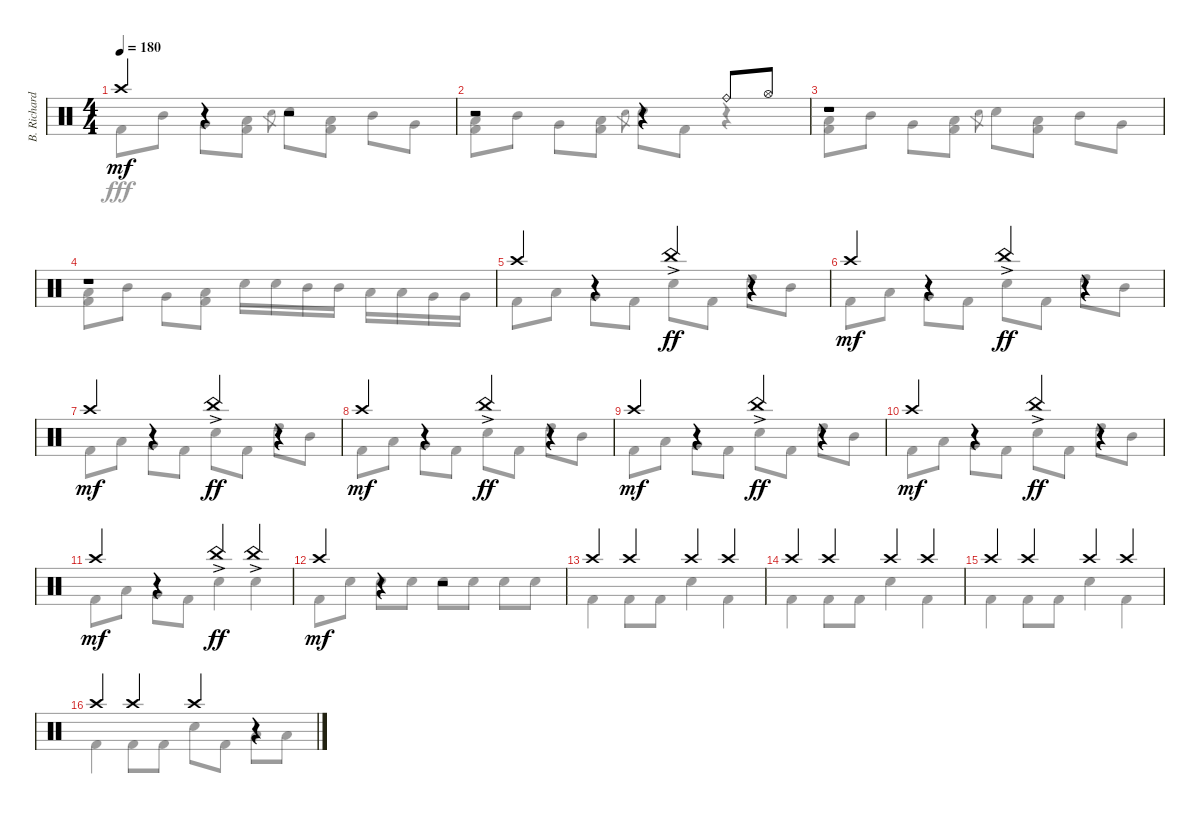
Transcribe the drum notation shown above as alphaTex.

\track ("B. Richardson Drums" "B. Richard") {instrument percussion}
\staff {score}
\articulation defaults
\voice
\ts (4 4)
\tempo 180
\clef neutral
\ks c "Crash high (hit)".4{dy mf}
r.4 r.2 |
r.2 r.4 "Ride (bell)".8 "Hi-Hat (open)".8 |
r.1 |
r.1 |
"Crash high (hit)".4 r.4 "China (hit)"{ac}.4{dy ff} r.4 |
"Crash high (hit)".4{dy mf} r.4 "China (hit)"{ac}.4{dy ff} r.4 |
"Crash high (hit)".4{dy mf} r.4 "China (hit)"{ac}.4{dy ff} r.4 |
"Crash high (hit)".4{dy mf} r.4 "China (hit)"{ac}.4{dy ff} r.4 |
"Crash high (hit)".4{dy mf} r.4 "China (hit)"{ac}.4{dy ff} r.4 |
"Crash high (hit)".4{dy mf} r.4 "China (hit)"{ac}.4{dy ff} r.4 |
"Crash high (hit)".4{dy mf} r.4 "China (hit)"{ac}.4{dy ff} "China (hit)"{ac}.4 |
"Crash high (hit)".4{dy mf} r.4 r.2 |
"Crash high (hit)".4 "Crash high (hit)".4 "Crash high (hit)".4 "Crash high (hit)".4 |
"Crash high (hit)".4 "Crash high (hit)".4 "Crash high (hit)".4 "Crash high (hit)".4 |
"Crash high (hit)".4 "Crash high (hit)".4 "Crash high (hit)".4 "Crash high (hit)".4 |
"Crash high (hit)".4 "Crash high (hit)".4 "Crash high (hit)".4 r.4
\voice
\clef neutral
\ottava regular
\simile none
\ks c "Kick (hit) 2".8{dy fff} "Mid Tom (hit)".8 "Very Low Tom (hit)".8
("Low Tom (hit)" "Kick (hit) 2").8 "Electric Snare (hit)".8{gr} "Electric Snare (hit)".8 ("Low Tom (hit)" "Kick (hit) 2").8 "Mid Tom (hit)".8 "Very Low Tom (hit)".8 |
("Low Tom (hit)" "Kick (hit) 2").8 "Mid Tom (hit)".8 "Very Low Tom (hit)".8 ("Low Tom (hit)" "Kick (hit) 2").8 "Electric Snare (hit)".8{gr} "Electric Snare (hit)".8 "Kick (hit) 2".8 r.4 |
("Low Tom (hit)" "Kick (hit) 2").8 "Mid Tom (hit)".8 "Very Low Tom (hit)".8 ("Low Tom (hit)" "Kick (hit) 2").8 "Electric Snare (hit)".8{gr} "Electric Snare (hit)".8 ("Low Tom (hit)" "Kick (hit) 2").8 "Mid Tom (hit)".8 "Very Low Tom (hit)".8 |
("Low Tom (hit)" "Kick (hit) 2").8 "Mid Tom (hit)".8 "Very Low Tom (hit)".8 ("Low Tom (hit)" "Kick (hit) 2").8 "Electric Snare (hit)".16 "Electric Snare (hit)".16 "Mid Tom (hit)".16 "Mid Tom (hit)".16 "Low Tom (hit)".16 "Low Tom (hit)".16 "Very Low Tom (hit)".16 "Very Low Tom (hit)".16 |
"Kick (hit) 2".8 "Low Tom (hit)".8 "Very Low Tom (hit)".8 "Kick (hit) 2".8 "Electric Snare (hit)".8 "Kick (hit) 2".8 "High Tom (hit)".8 "Mid Tom (hit)".8 |
"Kick (hit) 2".8 "Low Tom (hit)".8 "Very Low Tom (hit)".8 "Kick (hit) 2".8 "Electric Snare (hit)".8 "Kick (hit) 2".8 "High Tom (hit)".8 "Mid Tom (hit)".8 |
"Kick (hit) 2".8 "Low Tom (hit)".8 "Very Low Tom (hit)".8 "Kick (hit) 2".8 "Electric Snare (hit)".8 "Kick (hit) 2".8 "High Tom (hit)".8 "Mid Tom (hit)".8 |
"Kick (hit) 2".8 "Low Tom (hit)".8 "Very Low Tom (hit)".8 "Kick (hit) 2".8 "Electric Snare (hit)".8 "Kick (hit) 2".8 "High Tom (hit)".8 "Mid Tom (hit)".8 |
"Kick (hit) 2".8 "Low Tom (hit)".8 "Very Low Tom (hit)".8 "Kick (hit) 2".8 "Electric Snare (hit)".8 "Kick (hit) 2".8 "High Tom (hit)".8 "Mid Tom (hit)".8 |
"Kick (hit) 2".8 "Low Tom (hit)".8 "Very Low Tom (hit)".8 "Kick (hit) 2".8 "Electric Snare (hit)".8 "Kick (hit) 2".8 "High Tom (hit)".8 "Mid Tom (hit)".8 |
"Kick (hit) 2".8 "Low Tom (hit)".8 "Very Low Tom (hit)".8 "Kick (hit) 2".8 "Electric Snare (hit)".4 "Electric Snare (hit)".4 |
"Kick (hit) 2".8 "Electric Snare (hit)".8 "Electric Snare (hit)".8 "Electric Snare (hit)".8 "Electric Snare (hit)".8 "Electric Snare (hit)".8 "Electric Snare (hit)".8 "Electric Snare (hit)".8 |
"Kick (hit) 2".4 "Kick (hit) 2".8 "Kick (hit) 2".8 "Electric Snare (hit)".4 "Kick (hit) 2".4 |
"Kick (hit) 2".4 "Kick (hit) 2".8 "Kick (hit) 2".8 "Electric Snare (hit)".4 "Kick (hit) 2".4 |
"Kick (hit) 2".4 "Kick (hit) 2".8 "Kick (hit) 2".8 "Electric Snare (hit)".4 "Kick (hit) 2".4 |
"Kick (hit) 2".4 "Kick (hit) 2".8 "Kick (hit) 2".8 "Electric Snare (hit)".8 "Kick (hit) 2".8 "Low Tom (hit)".8 "Low Tom (hit)".8
